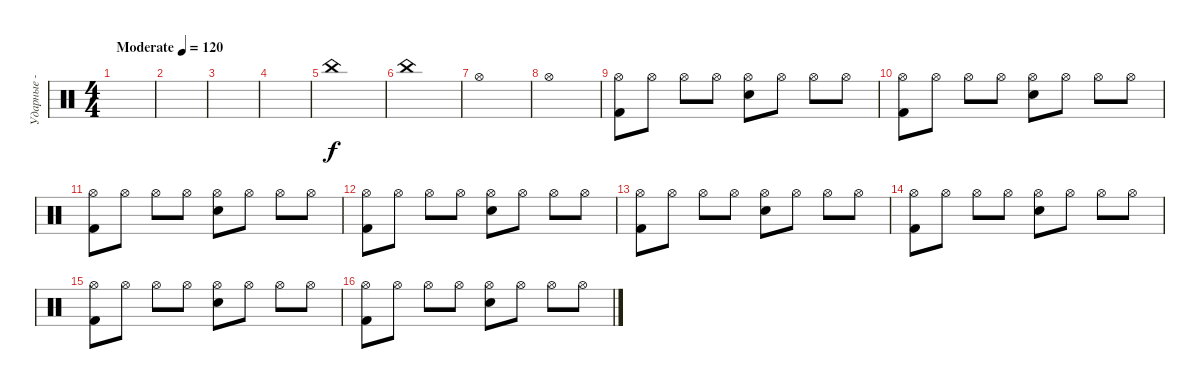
\track ("Ударные - Ваня" "Ударные - ") {instrument percussion}
\staff {score}
\articulation defaults
\ts (4 4)
\tempo (120 "Moderate")
\clef neutral
\ks c
|
|
|
|
"China (hit)".1 |
"China (hit)".1 |
"Hi-Hat (open)".1 |
"Hi-Hat (open)".1 |
("Hi-Hat (open)" "Kick (hit) 2").8 "Hi-Hat (open)".8 "Hi-Hat (open)".8 "Hi-Hat (open)".8 ("Snare (hit) 2" "Hi-Hat (open)").8 "Hi-Hat (open)".8 "Hi-Hat (open)".8 "Hi-Hat (open)".8 |
("Hi-Hat (open)" "Kick (hit) 2").8 "Hi-Hat (open)".8 "Hi-Hat (open)".8 "Hi-Hat (open)".8 ("Snare (hit) 2" "Hi-Hat (open)").8 "Hi-Hat (open)".8 "Hi-Hat (open)".8 "Hi-Hat (open)".8 |
("Hi-Hat (open)" "Kick (hit) 2").8 "Hi-Hat (open)".8 "Hi-Hat (open)".8 "Hi-Hat (open)".8 ("Snare (hit) 2" "Hi-Hat (open)").8 "Hi-Hat (open)".8 "Hi-Hat (open)".8 "Hi-Hat (open)".8 |
("Hi-Hat (open)" "Kick (hit) 2").8 "Hi-Hat (open)".8 "Hi-Hat (open)".8 "Hi-Hat (open)".8 ("Snare (hit) 2" "Hi-Hat (open)").8 "Hi-Hat (open)".8 "Hi-Hat (open)".8 "Hi-Hat (open)".8 |
("Hi-Hat (open)" "Kick (hit) 2").8 "Hi-Hat (open)".8 "Hi-Hat (open)".8 "Hi-Hat (open)".8 ("Snare (hit) 2" "Hi-Hat (open)").8 "Hi-Hat (open)".8 "Hi-Hat (open)".8 "Hi-Hat (open)".8 |
("Hi-Hat (open)" "Kick (hit) 2").8 "Hi-Hat (open)".8 "Hi-Hat (open)".8 "Hi-Hat (open)".8 ("Snare (hit) 2" "Hi-Hat (open)").8 "Hi-Hat (open)".8 "Hi-Hat (open)".8 "Hi-Hat (open)".8 |
("Hi-Hat (open)" "Kick (hit) 2").8 "Hi-Hat (open)".8 "Hi-Hat (open)".8 "Hi-Hat (open)".8 ("Snare (hit) 2" "Hi-Hat (open)").8 "Hi-Hat (open)".8 "Hi-Hat (open)".8 "Hi-Hat (open)".8 |
("Hi-Hat (open)" "Kick (hit) 2").8 "Hi-Hat (open)".8 "Hi-Hat (open)".8 "Hi-Hat (open)".8 ("Snare (hit) 2" "Hi-Hat (open)").8 "Hi-Hat (open)".8 "Hi-Hat (open)".8 "Hi-Hat (open)".8
